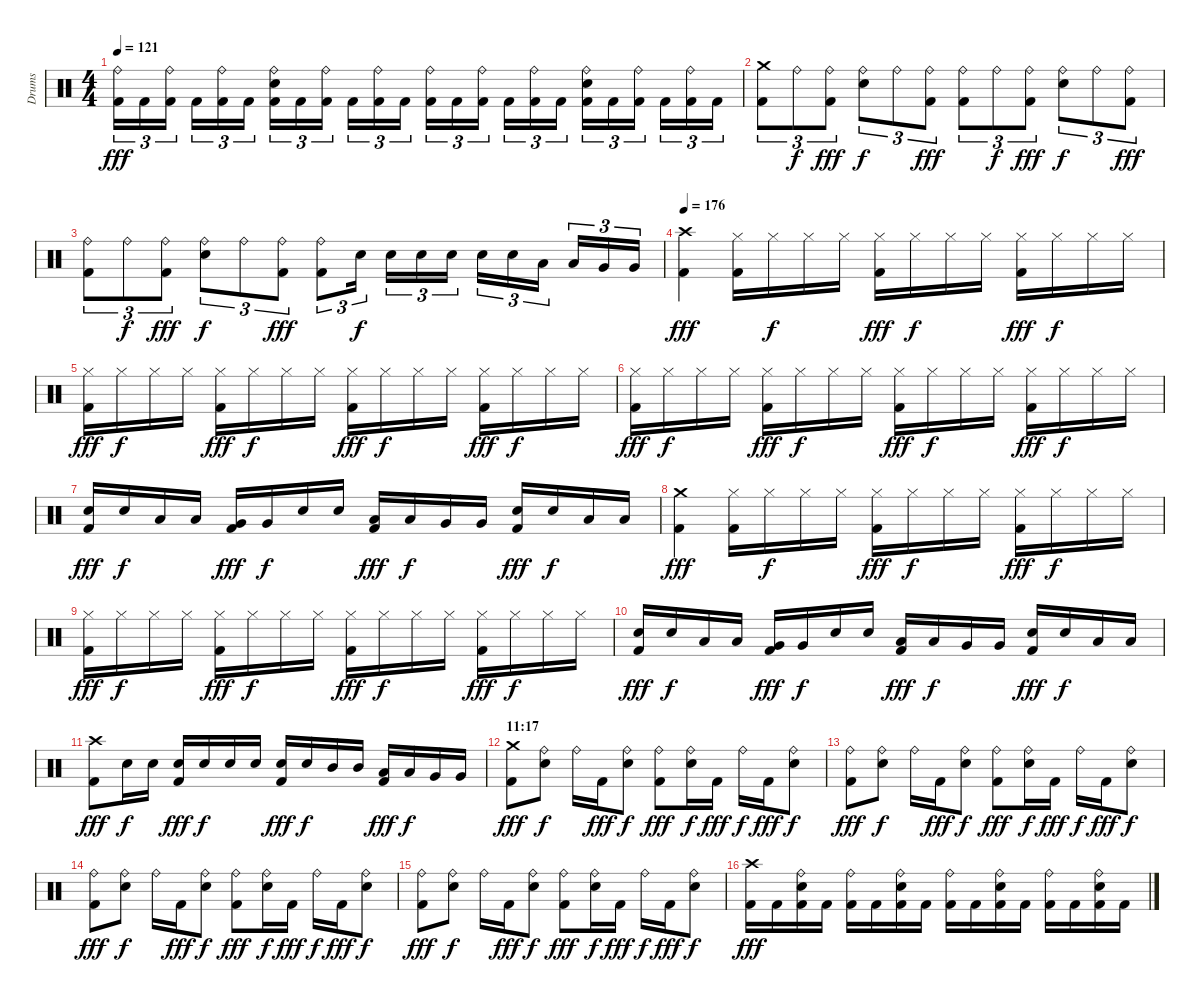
\track ("Drums" "Drums") {instrument percussion}
\staff {score}
\articulation defaults
\ts (4 4)
\tempo 121
\clef neutral
\ks c
("Ride (bell)" "Kick (hit) 2").16{tu (3 2) dy fff} "Kick (hit) 2".16{tu (3 2)} ("Ride (bell)" "Kick (hit) 2").16{tu (3 2)} "Kick (hit) 2".16{tu (3 2)} ("Ride (bell)" "Kick (hit) 2").16{tu (3 2)} "Kick (hit) 2".16{tu (3 2)} ("Ride (bell)" "Snare (hit) 2" "Kick (hit) 2").16{tu (3 2)} "Kick (hit) 2".16{tu (3 2)} ("Ride (bell)" "Kick (hit) 2").16{tu (3 2)} "Kick (hit) 2".16{tu (3 2)} ("Ride (bell)" "Kick (hit) 2").16{tu (3 2)} "Kick (hit) 2".16{tu (3 2)} ("Ride (bell)" "Kick (hit) 2").16{tu (3 2)} "Kick (hit) 2".16{tu (3 2)} ("Ride (bell)" "Kick (hit) 2").16{tu (3 2)} "Kick (hit) 2".16{tu (3 2)} ("Ride (bell)" "Kick (hit) 2").16{tu (3 2)} "Kick (hit) 2".16{tu (3 2)} ("Ride (bell)" "Snare (hit) 2" "Kick (hit) 2").16{tu (3 2)} "Kick (hit) 2".16{tu (3 2)} ("Ride (bell)" "Kick (hit) 2").16{tu (3 2)} "Kick (hit) 2".16{tu (3 2)} ("Ride (bell)" "Kick (hit) 2").16{tu (3 2)} "Kick (hit) 2".16{tu (3 2)} |
("Crash medium (hit)" "Kick (hit) 2").8{tu (3 2)} "Ride (bell)".8{tu (3 2) dy f} ("Ride (bell)" "Kick (hit) 2").8{tu (3 2) dy fff} ("Ride (bell)" "Snare (hit) 2").8{tu (3 2) dy f} "Ride (bell)".8{tu (3 2)} ("Ride (bell)" "Kick (hit) 2").8{tu (3 2) dy fff} ("Ride (bell)" "Kick (hit) 2").8{tu (3 2)} "Ride (bell)".8{tu (3 2) dy f} ("Ride (bell)" "Kick (hit) 2").8{tu (3 2) dy fff} ("Ride (bell)" "Snare (hit) 2").8{tu (3 2) dy f} "Ride (bell)".8{tu (3 2)} ("Ride (bell)" "Kick (hit) 2").8{tu (3 2) dy fff} |
("Ride (bell)" "Kick (hit) 2").8{tu (3 2)} "Ride (bell)".8{tu (3 2) dy f} ("Ride (bell)" "Kick (hit) 2").8{tu (3 2) dy fff} ("Ride (bell)" "Snare (hit) 2").8{tu (3 2) dy f} "Ride (bell)".8{tu (3 2)} ("Ride (bell)" "Kick (hit) 2").8{tu (3 2) dy fff} ("Ride (bell)" "Kick (hit) 2").8{tu (3 2)} "Snare (hit) 2".16{tu (3 2) dy f} "Snare (hit) 2".16{tu (3 2)} "Snare (hit) 2".16{tu (3 2)} "Snare (hit) 2".16{tu (3 2)} "Snare (hit) 2".16{tu (3 2)} "Snare (hit) 2".16{tu (3 2)} "Low Tom (hit)".16{tu (3 2)} "Low Tom (hit)".16{tu (3 2)} "Very Low Tom (hit)".16{tu (3 2)} "Very Low Tom (hit)".16{tu (3 2)} |
\tempo 176
("Crash high (hit)" "Kick (hit) 2").4{dy fff} ("Hi-Hat (closed)" "Kick (hit) 2").16 "Hi-Hat (closed)".16{dy f} "Hi-Hat (closed)".16 "Hi-Hat (closed)".16 ("Hi-Hat (closed)" "Kick (hit) 2").16{dy fff} "Hi-Hat (closed)".16{dy f} "Hi-Hat (closed)".16 "Hi-Hat (closed)".16 ("Hi-Hat (closed)" "Kick (hit) 2").16{dy fff} "Hi-Hat (closed)".16{dy f} "Hi-Hat (closed)".16 "Hi-Hat (closed)".16 |
("Hi-Hat (closed)" "Kick (hit) 2").16{dy fff} "Hi-Hat (closed)".16{dy f} "Hi-Hat (closed)".16 "Hi-Hat (closed)".16 ("Hi-Hat (closed)" "Kick (hit) 2").16{dy fff} "Hi-Hat (closed)".16{dy f} "Hi-Hat (closed)".16 "Hi-Hat (closed)".16 ("Hi-Hat (closed)" "Kick (hit) 2").16{dy fff} "Hi-Hat (closed)".16{dy f} "Hi-Hat (closed)".16 "Hi-Hat (closed)".16 ("Hi-Hat (closed)" "Kick (hit) 2").16{dy fff} "Hi-Hat (closed)".16{dy f} "Hi-Hat (closed)".16 "Hi-Hat (closed)".16 |
("Hi-Hat (closed)" "Kick (hit) 2").16{dy fff} "Hi-Hat (closed)".16{dy f} "Hi-Hat (closed)".16 "Hi-Hat (closed)".16 ("Hi-Hat (closed)" "Kick (hit) 2").16{dy fff} "Hi-Hat (closed)".16{dy f} "Hi-Hat (closed)".16 "Hi-Hat (closed)".16 ("Hi-Hat (closed)" "Kick (hit) 2").16{dy fff} "Hi-Hat (closed)".16{dy f} "Hi-Hat (closed)".16 "Hi-Hat (closed)".16 ("Hi-Hat (closed)" "Kick (hit) 2").16{dy fff} "Hi-Hat (closed)".16{dy f} "Hi-Hat (closed)".16 "Hi-Hat (closed)".16 |
("Snare (hit) 2" "Kick (hit) 2").16{dy fff} "Snare (hit) 2".16{dy f} "Low Tom (hit)".16 "Low Tom (hit)".16 ("Very Low Tom (hit)" "Kick (hit) 2").16{dy fff} "Very Low Tom (hit)".16{dy f} "Snare (hit) 2".16 "Snare (hit) 2".16 ("Low Tom (hit)" "Kick (hit) 2").16{dy fff} "Low Tom (hit)".16{dy f} "Very Low Tom (hit)".16 "Very Low Tom (hit)".16 ("Snare (hit) 2" "Kick (hit) 2").16{dy fff} "Snare (hit) 2".16{dy f} "Low Tom (hit)".16 "Low Tom (hit)".16 |
("Crash medium (hit)" "Kick (hit) 2").4{dy fff} ("Hi-Hat (closed)" "Kick (hit) 2").16 "Hi-Hat (closed)".16{dy f} "Hi-Hat (closed)".16 "Hi-Hat (closed)".16 ("Hi-Hat (closed)" "Kick (hit) 2").16{dy fff} "Hi-Hat (closed)".16{dy f} "Hi-Hat (closed)".16 "Hi-Hat (closed)".16 ("Hi-Hat (closed)" "Kick (hit) 2").16{dy fff} "Hi-Hat (closed)".16{dy f} "Hi-Hat (closed)".16 "Hi-Hat (closed)".16 |
("Hi-Hat (closed)" "Kick (hit) 2").16{dy fff} "Hi-Hat (closed)".16{dy f} "Hi-Hat (closed)".16 "Hi-Hat (closed)".16 ("Hi-Hat (closed)" "Kick (hit) 2").16{dy fff} "Hi-Hat (closed)".16{dy f} "Hi-Hat (closed)".16 "Hi-Hat (closed)".16 ("Hi-Hat (closed)" "Kick (hit) 2").16{dy fff} "Hi-Hat (closed)".16{dy f} "Hi-Hat (closed)".16 "Hi-Hat (closed)".16 ("Hi-Hat (closed)" "Kick (hit) 2").16{dy fff} "Hi-Hat (closed)".16{dy f} "Hi-Hat (closed)".16 "Hi-Hat (closed)".16 |
("Snare (hit) 2" "Kick (hit) 2").16{dy fff} "Snare (hit) 2".16{dy f} "Low Tom (hit)".16 "Low Tom (hit)".16 ("Very Low Tom (hit)" "Kick (hit) 2").16{dy fff} "Very Low Tom (hit)".16{dy f} "Snare (hit) 2".16 "Snare (hit) 2".16 ("Low Tom (hit)" "Kick (hit) 2").16{dy fff} "Low Tom (hit)".16{dy f} "Very Low Tom (hit)".16 "Very Low Tom (hit)".16 ("Snare (hit) 2" "Kick (hit) 2").16{dy fff} "Snare (hit) 2".16{dy f} "Low Tom (hit)".16 "Low Tom (hit)".16 |
("Crash high (hit)" "Kick (hit) 2").8{dy fff} "Snare (hit) 2".16{dy f} "Snare (hit) 2".16 ("Snare (hit) 2" "Kick (hit) 2").16{dy fff} "Snare (hit) 2".16{dy f} "Snare (hit) 2".16 "Snare (hit) 2".16 ("Snare (hit) 2" "Kick (hit) 2").16{dy fff} "Snare (hit) 2".16{dy f} "Mid Tom (hit)".16 "Mid Tom (hit)".16 ("Low Tom (hit)" "Kick (hit) 2").16{dy fff} "Low Tom (hit)".16{dy f} "Very Low Tom (hit)".16 "Very Low Tom (hit)".16 |
\section ("" "11:17")
("Crash medium (hit)" "Kick (hit) 2").8{dy fff} ("Ride (bell)" "Snare (hit) 2").8{dy f} "Ride (bell)".16 "Kick (hit) 2".16{dy fff} ("Ride (bell)" "Snare (hit) 2").8{dy f} ("Ride (bell)" "Kick (hit) 2").8{dy fff} ("Ride (bell)" "Snare (hit) 2").16{dy f} "Kick (hit) 2".16{dy fff} "Ride (bell)".16{dy f} "Kick (hit) 2".16{dy fff} ("Ride (bell)" "Snare (hit) 2").8{dy f} |
("Ride (bell)" "Kick (hit) 2").8{dy fff} ("Ride (bell)" "Snare (hit) 2").8{dy f} "Ride (bell)".16 "Kick (hit) 2".16{dy fff} ("Ride (bell)" "Snare (hit) 2").8{dy f} ("Ride (bell)" "Kick (hit) 2").8{dy fff} ("Ride (bell)" "Snare (hit) 2").16{dy f} "Kick (hit) 2".16{dy fff} "Ride (bell)".16{dy f} "Kick (hit) 2".16{dy fff} ("Ride (bell)" "Snare (hit) 2").8{dy f} |
("Ride (bell)" "Kick (hit) 2").8{dy fff} ("Ride (bell)" "Snare (hit) 2").8{dy f} "Ride (bell)".16 "Kick (hit) 2".16{dy fff} ("Ride (bell)" "Snare (hit) 2").8{dy f} ("Ride (bell)" "Kick (hit) 2").8{dy fff} ("Ride (bell)" "Snare (hit) 2").16{dy f} "Kick (hit) 2".16{dy fff} "Ride (bell)".16{dy f} "Kick (hit) 2".16{dy fff} ("Ride (bell)" "Snare (hit) 2").8{dy f} |
("Ride (bell)" "Kick (hit) 2").8{dy fff} ("Ride (bell)" "Snare (hit) 2").8{dy f} "Ride (bell)".16 "Kick (hit) 2".16{dy fff} ("Ride (bell)" "Snare (hit) 2").8{dy f} ("Ride (bell)" "Kick (hit) 2").8{dy fff} ("Ride (bell)" "Snare (hit) 2").16{dy f} "Kick (hit) 2".16{dy fff} "Ride (bell)".16{dy f} "Kick (hit) 2".16{dy fff} ("Ride (bell)" "Snare (hit) 2").8{dy f} |
("Crash high (hit)" "Kick (hit) 2").16{dy fff} "Kick (hit) 2".16 ("Ride (bell)" "Snare (hit) 2" "Kick (hit) 2").16 "Kick (hit) 2".16 ("Ride (bell)" "Kick (hit) 2").16 "Kick (hit) 2".16 ("Ride (bell)" "Snare (hit) 2" "Kick (hit) 2").16 "Kick (hit) 2".16 ("Ride (bell)" "Kick (hit) 2").16 "Kick (hit) 2".16 ("Ride (bell)" "Snare (hit) 2" "Kick (hit) 2").16 "Kick (hit) 2".16 ("Ride (bell)" "Kick (hit) 2").16 "Kick (hit) 2".16 ("Ride (bell)" "Snare (hit) 2" "Kick (hit) 2").16 "Kick (hit) 2".16
